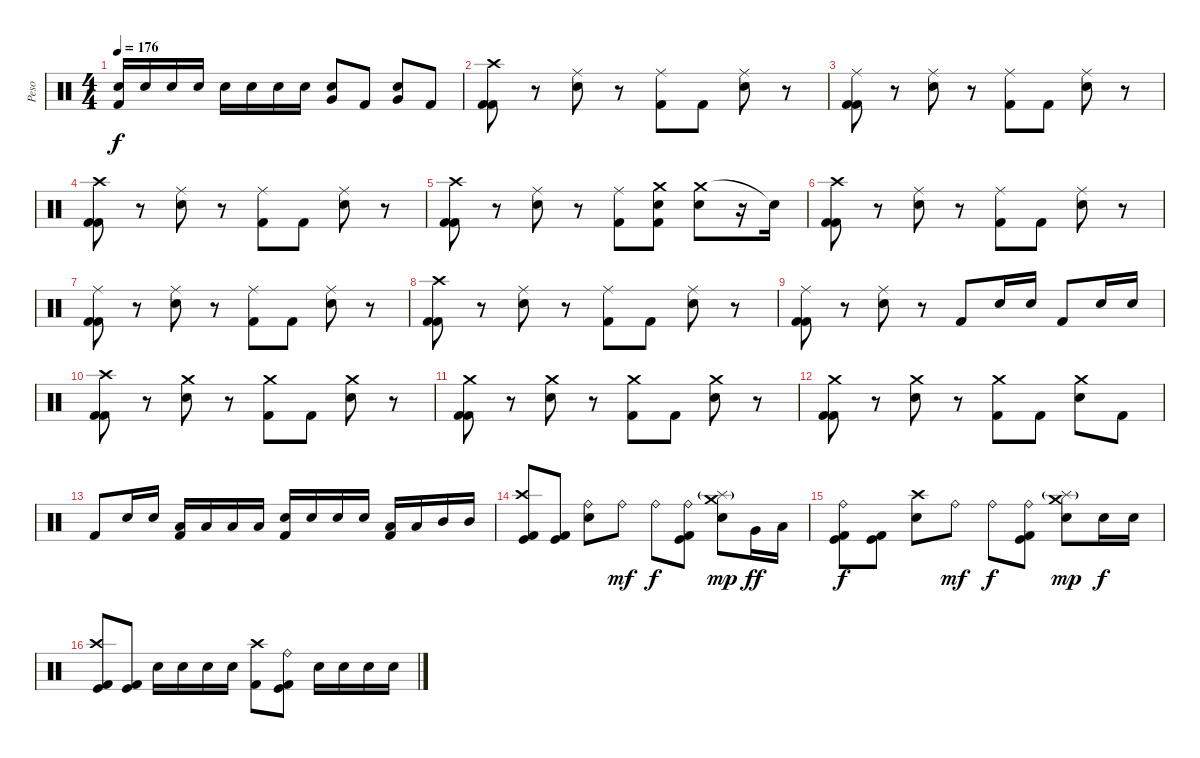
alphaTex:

\track ("Peso" "Peso") {instrument percussion}
\staff {score}
\articulation defaults
\ts (4 4)
\tempo 176
\clef neutral
\ks c
("Electric Snare (hit)" "Kick (hit) 2").16{dy f} "Electric Snare (hit)".16 "Electric Snare (hit)".16 "Electric Snare (hit)".16 "Electric Snare (hit)".16 "Electric Snare (hit)".16 "Electric Snare (hit)".16 "Electric Snare (hit)".16 ("Very Low Tom (hit)" "Electric Snare (hit)").8 "Kick (hit) 2".8 ("Very Low Tom (hit)" "Electric Snare (hit)").8 "Kick (hit) 2".8 |
("Crash high (hit)" "Kick (hit) 2" "Kick (hit) 2").8 r.8 ("Ride (middle)" "Electric Snare (hit)").8 r.8 ("Ride (middle)" "Kick (hit) 2").8 "Kick (hit) 2".8 ("Ride (middle)" "Electric Snare (hit)").8 r.8 |
("Ride (middle)" "Kick (hit) 2" "Kick (hit) 2").8 r.8 ("Ride (middle)" "Electric Snare (hit)").8 r.8 ("Ride (middle)" "Kick (hit) 2").8 "Kick (hit) 2".8 ("Ride (middle)" "Electric Snare (hit)").8 r.8 |
("Crash high (hit)" "Kick (hit) 2" "Kick (hit) 2").8 r.8 ("Ride (middle)" "Electric Snare (hit)").8 r.8 ("Ride (middle)" "Kick (hit) 2").8 "Kick (hit) 2".8 ("Ride (middle)" "Electric Snare (hit)").8 r.8 |
("Crash high (hit)" "Kick (hit) 2" "Kick (hit) 2").8 r.8 ("Ride (middle)" "Electric Snare (hit)").8 r.8 ("Ride (middle)" "Kick (hit) 2").8 ("Crash medium (hit)" "Electric Snare (hit)" "Kick (hit) 2").8 ("Crash medium (hit)" "Electric Snare (hit)").8 r.16 "Snare (hit)"{t}.16 |
("Crash high (hit)" "Kick (hit) 2" "Kick (hit) 2").8 r.8 ("Ride (middle)" "Electric Snare (hit)").8 r.8 ("Ride (middle)" "Kick (hit) 2").8 "Kick (hit) 2".8 ("Ride (middle)" "Electric Snare (hit)").8 r.8 |
("Ride (middle)" "Kick (hit) 2" "Kick (hit) 2").8 r.8 ("Ride (middle)" "Electric Snare (hit)").8 r.8 ("Ride (middle)" "Kick (hit) 2").8 "Kick (hit) 2".8 ("Ride (middle)" "Electric Snare (hit)").8 r.8 |
("Crash high (hit)" "Kick (hit) 2" "Kick (hit) 2").8 r.8 ("Ride (middle)" "Electric Snare (hit)").8 r.8 ("Ride (middle)" "Kick (hit) 2").8 "Kick (hit) 2".8 ("Ride (middle)" "Electric Snare (hit)").8 r.8 |
("Ride (middle)" "Kick (hit) 2" "Kick (hit) 2").8 r.8 ("Ride (middle)" "Electric Snare (hit)").8 r.8 "Kick (hit) 2".8 "Electric Snare (hit)".16 "Electric Snare (hit)".16 "Kick (hit) 2".8 "Electric Snare (hit)".16 "Electric Snare (hit)".16 |
("Crash high (hit)" "Kick (hit) 2" "Kick (hit) 2").8 r.8 ("Crash medium (hit)" "Electric Snare (hit)").8 r.8 ("Crash medium (hit)" "Kick (hit) 2").8 "Kick (hit) 2".8 ("Crash medium (hit)" "Electric Snare (hit)").8 r.8 |
("Crash medium (hit)" "Kick (hit) 2" "Kick (hit) 2").8 r.8 ("Crash medium (hit)" "Electric Snare (hit)").8 r.8 ("Crash medium (hit)" "Kick (hit) 2").8 "Kick (hit) 2".8 ("Crash medium (hit)" "Electric Snare (hit)").8 r.8 |
("Crash medium (hit)" "Kick (hit) 2" "Kick (hit) 2").8 r.8 ("Crash medium (hit)" "Electric Snare (hit)").8 r.8 ("Crash medium (hit)" "Kick (hit) 2").8 "Kick (hit) 2".8 ("Crash medium (hit)" "Electric Snare (hit)").8 "Kick (hit) 2".8 |
"Kick (hit) 2".8 "Electric Snare (hit)".16 "Electric Snare (hit)".16 ("Low Tom (hit)" "Kick (hit) 2").16 "Low Tom (hit)".16 "Low Tom (hit)".16 "Low Tom (hit)".16 ("Electric Snare (hit)" "Kick (hit) 2").16 "Electric Snare (hit)".16 "Electric Snare (hit)".16 "Electric Snare (hit)".16 ("Low Tom (hit)" "Kick (hit) 2").16 "Low Tom (hit)".16 "Mid Tom (hit)".16 "Mid Tom (hit)".16 |
("Crash high (hit)" "Kick (hit)" "Kick (hit) 2").8 ("Kick (hit)" "Kick (hit) 2").8 ("Ride (bell)" "Electric Snare (hit)").8 "Ride (bell)".8{dy mf} "Ride (bell)".8{dy f} ("Ride (bell)" "Kick (hit)" "Kick (hit) 2").8 ("Crash medium (hit)" "Splash (hit)"{g} "Electric Snare (hit)").8{dy mp} "Very Low Tom (hit)".16{dy ff} "Low Tom (hit)".16 |
("Ride (bell)" "Kick (hit)" "Kick (hit) 2").8{dy f} ("Kick (hit)" "Kick (hit) 2").8 ("Crash high (hit)" "Electric Snare (hit)").8 "Ride (bell)".8{dy mf} "Ride (bell)".8{dy f} ("Ride (bell)" "Kick (hit)" "Kick (hit) 2").8 ("Crash medium (hit)" "Splash (hit)"{g} "Electric Snare (hit)").8{dy mp} "Electric Snare (hit)".16{dy f} "Electric Snare (hit)".16 |
("Crash high (hit)" "Kick (hit)" "Kick (hit) 2").8 ("Kick (hit)" "Kick (hit) 2").8 "Electric Snare (hit)".16 "Electric Snare (hit)".16 "Electric Snare (hit)".16 "Electric Snare (hit)".16 ("Crash high (hit)" "Kick (hit) 2").8 ("Ride (bell)" "Kick (hit)" "Kick (hit) 2").8 "Electric Snare (hit)".16 "Electric Snare (hit)".16 "Electric Snare (hit)".16 "Electric Snare (hit)".16
